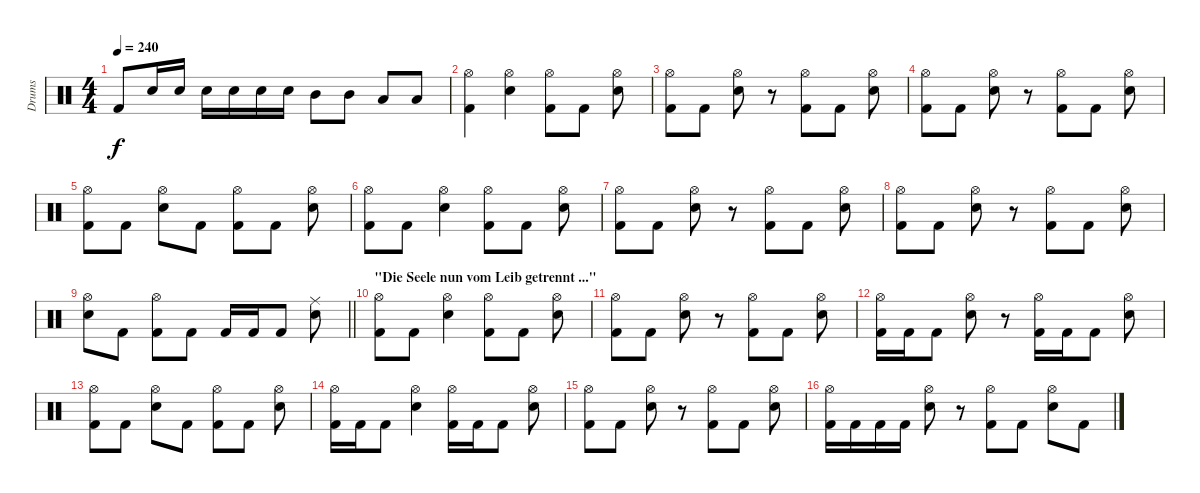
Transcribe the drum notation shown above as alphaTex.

\track ("Drums" "Drums") {instrument percussion}
\staff {score}
\articulation defaults
\ts (4 4)
\tempo 240
\clef neutral
\ks c "Kick (hit) 2".8{dy f} "Electric Snare (hit)".16 "Electric Snare (hit)".16 "Electric Snare (hit)".16 "Electric Snare (hit)".16 "Electric Snare (hit)".16 "Electric Snare (hit)".16 "Mid Tom (hit)".8 "Mid Tom (hit)".8 "Low Tom (hit)".8 "Low Tom (hit)".8
|
("Hi-Hat (open)" "Kick (hit) 2").4 ("Hi-Hat (open)" "Electric Snare (hit)").4 ("Hi-Hat (open)" "Kick (hit) 2").8 "Kick (hit) 2".8 ("Hi-Hat (open)" "Electric Snare (hit)").8 |
("Hi-Hat (open)" "Kick (hit) 2").8 "Kick (hit) 2".8 ("Hi-Hat (open)" "Electric Snare (hit)").8 r.8 ("Hi-Hat (open)" "Kick (hit) 2").8 "Kick (hit) 2".8 ("Hi-Hat (open)" "Electric Snare (hit)").8 |
("Hi-Hat (open)" "Kick (hit) 2").8 "Kick (hit) 2".8 ("Hi-Hat (open)" "Electric Snare (hit)").8 r.8 ("Hi-Hat (open)" "Kick (hit) 2").8 "Kick (hit) 2".8 ("Hi-Hat (open)" "Electric Snare (hit)").8 |
("Hi-Hat (open)" "Kick (hit) 2").8 "Kick (hit) 2".8 ("Hi-Hat (open)" "Electric Snare (hit)").8 "Kick (hit) 2".8 ("Hi-Hat (open)" "Kick (hit) 2").8 "Kick (hit) 2".8 ("Hi-Hat (open)" "Electric Snare (hit)").8 |
("Hi-Hat (open)" "Kick (hit) 2").8 "Kick (hit) 2".8 ("Hi-Hat (open)" "Electric Snare (hit)").4 ("Hi-Hat (open)" "Kick (hit) 2").8 "Kick (hit) 2".8 ("Hi-Hat (open)" "Electric Snare (hit)").8 |
("Hi-Hat (open)" "Kick (hit) 2").8 "Kick (hit) 2".8 ("Hi-Hat (open)" "Electric Snare (hit)").8 r.8 ("Hi-Hat (open)" "Kick (hit) 2").8 "Kick (hit) 2".8 ("Hi-Hat (open)" "Electric Snare (hit)").8 |
("Hi-Hat (open)" "Kick (hit) 2").8 "Kick (hit) 2".8 ("Hi-Hat (open)" "Electric Snare (hit)").8 r.8 ("Hi-Hat (open)" "Kick (hit) 2").8 "Kick (hit) 2".8 ("Hi-Hat (open)" "Electric Snare (hit)").8 |
\barLineRight lightlight
("Hi-Hat (open)" "Electric Snare (hit)").8 "Kick (hit) 2".8 ("Hi-Hat (open)" "Kick (hit) 2").8 "Kick (hit) 2".8 "Kick (hit) 2".16 "Kick (hit) 2".16 "Kick (hit) 2".8 ("Ride (middle)" "Electric Snare (hit)").8 |
\section ("" "\"Die Seele nun vom Leib getrennt ...\"")
("Hi-Hat (open)" "Kick (hit) 2").8 "Kick (hit) 2".8 ("Hi-Hat (open)" "Electric Snare (hit)").4 ("Hi-Hat (open)" "Kick (hit) 2").8 "Kick (hit) 2".8 ("Hi-Hat (open)" "Electric Snare (hit)").8 |
("Hi-Hat (open)" "Kick (hit) 2").8 "Kick (hit) 2".8 ("Hi-Hat (open)" "Electric Snare (hit)").8 r.8 ("Hi-Hat (open)" "Kick (hit) 2").8 "Kick (hit) 2".8 ("Hi-Hat (open)" "Electric Snare (hit)").8 |
("Hi-Hat (open)" "Kick (hit) 2").16 "Kick (hit) 2".16 "Kick (hit) 2".8 ("Hi-Hat (open)" "Electric Snare (hit)").8 r.8 ("Hi-Hat (open)" "Kick (hit) 2").16 "Kick (hit) 2".16 "Kick (hit) 2".8 ("Hi-Hat (open)" "Electric Snare (hit)").8 |
("Hi-Hat (open)" "Kick (hit) 2").8 "Kick (hit) 2".8 ("Hi-Hat (open)" "Electric Snare (hit)").8 "Kick (hit) 2".8 ("Hi-Hat (open)" "Kick (hit) 2").8 "Kick (hit) 2".8 ("Hi-Hat (open)" "Electric Snare (hit)").8 |
("Hi-Hat (open)" "Kick (hit) 2").16 "Kick (hit) 2".16 "Kick (hit) 2".8 ("Hi-Hat (open)" "Electric Snare (hit)").4 ("Hi-Hat (open)" "Kick (hit) 2").16 "Kick (hit) 2".16 "Kick (hit) 2".8 ("Hi-Hat (open)" "Electric Snare (hit)").8 |
("Hi-Hat (open)" "Kick (hit) 2").8 "Kick (hit) 2".8 ("Hi-Hat (open)" "Electric Snare (hit)").8 r.8 ("Hi-Hat (open)" "Kick (hit) 2").8 "Kick (hit) 2".8 ("Hi-Hat (open)" "Electric Snare (hit)").8 |
("Hi-Hat (open)" "Kick (hit) 2").16 "Kick (hit) 2".16 "Kick (hit) 2".16 "Kick (hit) 2".16 ("Hi-Hat (open)" "Electric Snare (hit)").8 r.8 ("Hi-Hat (open)" "Kick (hit) 2").8 "Kick (hit) 2".8 ("Hi-Hat (open)" "Electric Snare (hit)").8 "Kick (hit) 2".8
